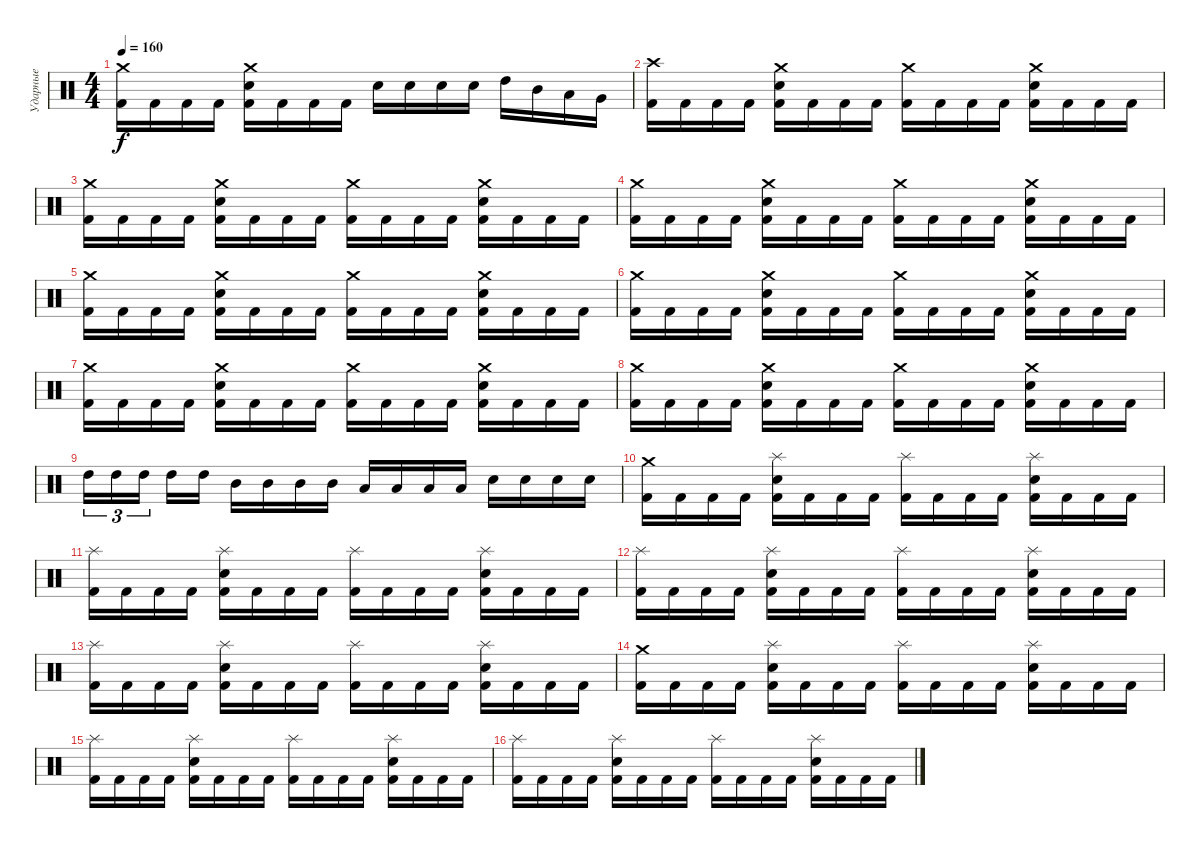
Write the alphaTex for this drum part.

\track ("Ударные" "Ударные") {instrument percussion}
\staff {score}
\articulation defaults
\ts (4 4)
\tempo 160
\clef neutral
\ks c
("Crash medium (hit)" "Kick (hit) 2").16{dy f} "Kick (hit) 2".16 "Kick (hit) 2".16 "Kick (hit) 2".16 ("Crash medium (hit)" "Electric Snare (hit)" "Kick (hit) 2").16 "Kick (hit) 2".16 "Kick (hit) 2".16 "Kick (hit) 2".16 "Electric Snare (hit)".16 "Electric Snare (hit)".16 "Electric Snare (hit)".16 "Electric Snare (hit)".16 "High Tom (hit)".16 "Mid Tom (hit)".16 "Low Tom (hit)".16 "Very Low Tom (hit)".16 |
("Crash high (hit)" "Kick (hit) 2").16 "Kick (hit) 2".16 "Kick (hit) 2".16 "Kick (hit) 2".16 ("Crash medium (hit)" "Electric Snare (hit)" "Kick (hit) 2").16 "Kick (hit) 2".16 "Kick (hit) 2".16 "Kick (hit) 2".16 ("Crash medium (hit)" "Kick (hit) 2").16 "Kick (hit) 2".16 "Kick (hit) 2".16 "Kick (hit) 2".16 ("Crash medium (hit)" "Electric Snare (hit)" "Kick (hit) 2").16 "Kick (hit) 2".16 "Kick (hit) 2".16 "Kick (hit) 2".16 |
("Crash medium (hit)" "Kick (hit) 2").16 "Kick (hit) 2".16 "Kick (hit) 2".16 "Kick (hit) 2".16 ("Crash medium (hit)" "Electric Snare (hit)" "Kick (hit) 2").16 "Kick (hit) 2".16 "Kick (hit) 2".16 "Kick (hit) 2".16 ("Crash medium (hit)" "Kick (hit) 2").16 "Kick (hit) 2".16 "Kick (hit) 2".16 "Kick (hit) 2".16 ("Crash medium (hit)" "Electric Snare (hit)" "Kick (hit) 2").16 "Kick (hit) 2".16 "Kick (hit) 2".16 "Kick (hit) 2".16 |
("Crash medium (hit)" "Kick (hit) 2").16 "Kick (hit) 2".16 "Kick (hit) 2".16 "Kick (hit) 2".16 ("Crash medium (hit)" "Electric Snare (hit)" "Kick (hit) 2").16 "Kick (hit) 2".16 "Kick (hit) 2".16 "Kick (hit) 2".16 ("Crash medium (hit)" "Kick (hit) 2").16 "Kick (hit) 2".16 "Kick (hit) 2".16 "Kick (hit) 2".16 ("Crash medium (hit)" "Electric Snare (hit)" "Kick (hit) 2").16 "Kick (hit) 2".16 "Kick (hit) 2".16 "Kick (hit) 2".16 |
("Crash medium (hit)" "Kick (hit) 2").16 "Kick (hit) 2".16 "Kick (hit) 2".16 "Kick (hit) 2".16 ("Crash medium (hit)" "Electric Snare (hit)" "Kick (hit) 2").16 "Kick (hit) 2".16 "Kick (hit) 2".16 "Kick (hit) 2".16 ("Crash medium (hit)" "Kick (hit) 2").16 "Kick (hit) 2".16 "Kick (hit) 2".16 "Kick (hit) 2".16 ("Crash medium (hit)" "Electric Snare (hit)" "Kick (hit) 2").16 "Kick (hit) 2".16 "Kick (hit) 2".16 "Kick (hit) 2".16 |
("Crash medium (hit)" "Kick (hit) 2").16 "Kick (hit) 2".16 "Kick (hit) 2".16 "Kick (hit) 2".16 ("Crash medium (hit)" "Electric Snare (hit)" "Kick (hit) 2").16 "Kick (hit) 2".16 "Kick (hit) 2".16 "Kick (hit) 2".16 ("Crash medium (hit)" "Kick (hit) 2").16 "Kick (hit) 2".16 "Kick (hit) 2".16 "Kick (hit) 2".16 ("Crash medium (hit)" "Electric Snare (hit)" "Kick (hit) 2").16 "Kick (hit) 2".16 "Kick (hit) 2".16 "Kick (hit) 2".16 |
("Crash medium (hit)" "Kick (hit) 2").16 "Kick (hit) 2".16 "Kick (hit) 2".16 "Kick (hit) 2".16 ("Crash medium (hit)" "Electric Snare (hit)" "Kick (hit) 2").16 "Kick (hit) 2".16 "Kick (hit) 2".16 "Kick (hit) 2".16 ("Crash medium (hit)" "Kick (hit) 2").16 "Kick (hit) 2".16 "Kick (hit) 2".16 "Kick (hit) 2".16 ("Crash medium (hit)" "Electric Snare (hit)" "Kick (hit) 2").16 "Kick (hit) 2".16 "Kick (hit) 2".16 "Kick (hit) 2".16 |
("Crash medium (hit)" "Kick (hit) 2").16 "Kick (hit) 2".16 "Kick (hit) 2".16 "Kick (hit) 2".16 ("Crash medium (hit)" "Electric Snare (hit)" "Kick (hit) 2").16 "Kick (hit) 2".16 "Kick (hit) 2".16 "Kick (hit) 2".16 ("Crash medium (hit)" "Kick (hit) 2").16 "Kick (hit) 2".16 "Kick (hit) 2".16 "Kick (hit) 2".16 ("Crash medium (hit)" "Electric Snare (hit)" "Kick (hit) 2").16 "Kick (hit) 2".16 "Kick (hit) 2".16 "Kick (hit) 2".16 |
"High Tom (hit)".16{tu (3 2)} "High Tom (hit)".16{tu (3 2)} "High Tom (hit)".16{tu (3 2) beam splitsecondary} "High Tom (hit)".16 "High Tom (hit)".16 "Mid Tom (hit)".16 "Mid Tom (hit)".16 "Mid Tom (hit)".16 "Mid Tom (hit)".16 "Low Tom (hit)".16 "Low Tom (hit)".16 "Low Tom (hit)".16 "Low Tom (hit)".16 "Electric Snare (hit)".16 "Electric Snare (hit)".16 "Electric Snare (hit)".16 "Electric Snare (hit)".16 |
("Crash medium (hit)" "Kick (hit) 2").16 "Kick (hit) 2".16 "Kick (hit) 2".16 "Kick (hit) 2".16 ("Splash (hit)" "Electric Snare (hit)" "Kick (hit) 2").16 "Kick (hit) 2".16 "Kick (hit) 2".16 "Kick (hit) 2".16 ("Splash (hit)" "Kick (hit) 2").16 "Kick (hit) 2".16 "Kick (hit) 2".16 "Kick (hit) 2".16 ("Splash (hit)" "Electric Snare (hit)" "Kick (hit) 2").16 "Kick (hit) 2".16 "Kick (hit) 2".16 "Kick (hit) 2".16 |
("Splash (hit)" "Kick (hit) 2").16 "Kick (hit) 2".16 "Kick (hit) 2".16 "Kick (hit) 2".16 ("Splash (hit)" "Electric Snare (hit)" "Kick (hit) 2").16 "Kick (hit) 2".16 "Kick (hit) 2".16 "Kick (hit) 2".16 ("Splash (hit)" "Kick (hit) 2").16 "Kick (hit) 2".16 "Kick (hit) 2".16 "Kick (hit) 2".16 ("Splash (hit)" "Electric Snare (hit)" "Kick (hit) 2").16 "Kick (hit) 2".16 "Kick (hit) 2".16 "Kick (hit) 2".16 |
("Splash (hit)" "Kick (hit) 2").16 "Kick (hit) 2".16 "Kick (hit) 2".16 "Kick (hit) 2".16 ("Splash (hit)" "Electric Snare (hit)" "Kick (hit) 2").16 "Kick (hit) 2".16 "Kick (hit) 2".16 "Kick (hit) 2".16 ("Splash (hit)" "Kick (hit) 2").16 "Kick (hit) 2".16 "Kick (hit) 2".16 "Kick (hit) 2".16 ("Splash (hit)" "Electric Snare (hit)" "Kick (hit) 2").16 "Kick (hit) 2".16 "Kick (hit) 2".16 "Kick (hit) 2".16 |
("Splash (hit)" "Kick (hit) 2").16 "Kick (hit) 2".16 "Kick (hit) 2".16 "Kick (hit) 2".16 ("Splash (hit)" "Electric Snare (hit)" "Kick (hit) 2").16 "Kick (hit) 2".16 "Kick (hit) 2".16 "Kick (hit) 2".16 ("Splash (hit)" "Kick (hit) 2").16 "Kick (hit) 2".16 "Kick (hit) 2".16 "Kick (hit) 2".16 ("Splash (hit)" "Electric Snare (hit)" "Kick (hit) 2").16 "Kick (hit) 2".16 "Kick (hit) 2".16 "Kick (hit) 2".16 |
("Crash medium (hit)" "Kick (hit) 2").16 "Kick (hit) 2".16 "Kick (hit) 2".16 "Kick (hit) 2".16 ("Splash (hit)" "Electric Snare (hit)" "Kick (hit) 2").16 "Kick (hit) 2".16 "Kick (hit) 2".16 "Kick (hit) 2".16 ("Splash (hit)" "Kick (hit) 2").16 "Kick (hit) 2".16 "Kick (hit) 2".16 "Kick (hit) 2".16 ("Splash (hit)" "Electric Snare (hit)" "Kick (hit) 2").16 "Kick (hit) 2".16 "Kick (hit) 2".16 "Kick (hit) 2".16 |
("Splash (hit)" "Kick (hit) 2").16 "Kick (hit) 2".16 "Kick (hit) 2".16 "Kick (hit) 2".16 ("Splash (hit)" "Electric Snare (hit)" "Kick (hit) 2").16 "Kick (hit) 2".16 "Kick (hit) 2".16 "Kick (hit) 2".16 ("Splash (hit)" "Kick (hit) 2").16 "Kick (hit) 2".16 "Kick (hit) 2".16 "Kick (hit) 2".16 ("Splash (hit)" "Electric Snare (hit)" "Kick (hit) 2").16 "Kick (hit) 2".16 "Kick (hit) 2".16 "Kick (hit) 2".16 |
("Splash (hit)" "Kick (hit) 2").16 "Kick (hit) 2".16 "Kick (hit) 2".16 "Kick (hit) 2".16 ("Splash (hit)" "Electric Snare (hit)" "Kick (hit) 2").16 "Kick (hit) 2".16 "Kick (hit) 2".16 "Kick (hit) 2".16 ("Splash (hit)" "Kick (hit) 2").16 "Kick (hit) 2".16 "Kick (hit) 2".16 "Kick (hit) 2".16 ("Splash (hit)" "Electric Snare (hit)" "Kick (hit) 2").16 "Kick (hit) 2".16 "Kick (hit) 2".16 "Kick (hit) 2".16
